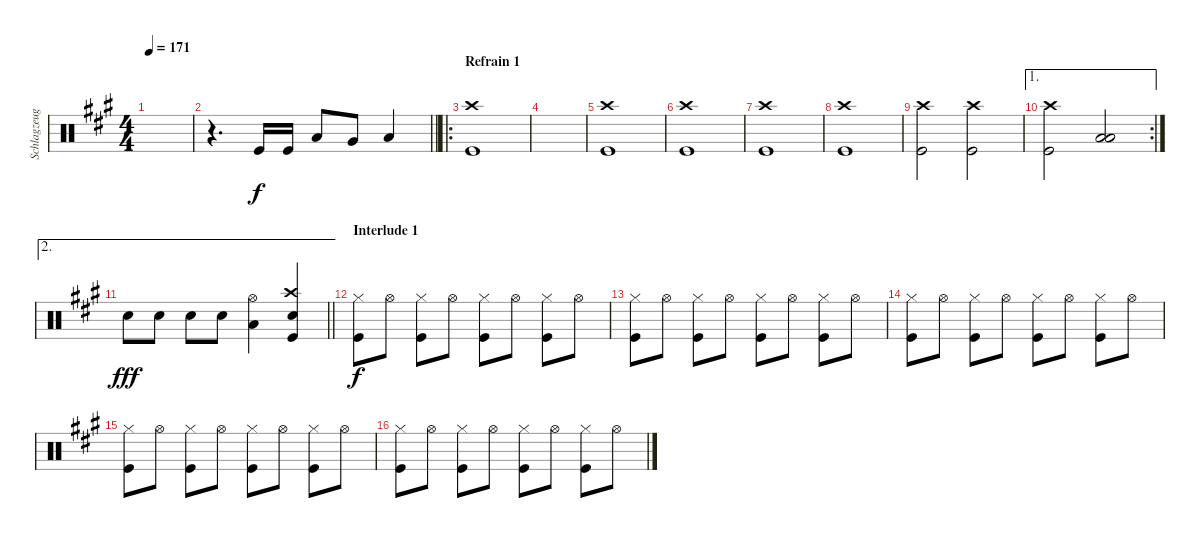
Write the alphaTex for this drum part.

\track ("Schlagzeug" "Schlagzeug") {instrument percussion}
\staff {score}
\articulation defaults
\ts (4 4)
\tempo 171
\clef neutral
\ks f#minor
|
\barLineRight lightlight
r.4{d} "Kick (hit)".16 "Kick (hit)".16 "Low Tom (hit)".8 "Very Low Tom (hit)".8 "Low Floor Tom (hit)".4 |
\ro
\section ("" "Refrain 1")
("Crash high (hit)" "Kick (hit)").1 |
|
("Crash high (hit)" "Kick (hit)").1 |
("Crash high (hit)" "Kick (hit)").1 |
("Crash high (hit)" "Kick (hit)").1 |
("Crash high (hit)" "Kick (hit)").1 |
("Crash high (hit)" "Kick (hit)").2 ("Crash high (hit)" "Kick (hit)").2 |
\ae 1
\rc 2
("Crash high (hit)" "Kick (hit)").2 ("Low Tom (hit)" "Low Floor Tom (hit)").2 |
\ae 2
\barLineRight lightlight "Electric Snare (hit)".8{dy fff} "Electric Snare (hit)".8 "Electric Snare (hit)".8 "Electric Snare (hit)".8
("Low Tom (hit)" "Hi-Hat (open)").4 ("Crash high (hit)" "Electric Snare (hit)" "Kick (hit)").4 |
\section ("" "Interlude 1")
("Hi-Hat (closed)" "Kick (hit)").8{dy f} "Hi-Hat (open)".8 ("Hi-Hat (closed)" "Kick (hit)").8 "Hi-Hat (open)".8 ("Hi-Hat (closed)" "Kick (hit)").8 "Hi-Hat (open)".8 ("Hi-Hat (closed)" "Kick (hit)").8 "Hi-Hat (open)".8 |
("Hi-Hat (closed)" "Kick (hit)").8 "Hi-Hat (open)".8 ("Hi-Hat (closed)" "Kick (hit)").8 "Hi-Hat (open)".8 ("Hi-Hat (closed)" "Kick (hit)").8 "Hi-Hat (open)".8 ("Hi-Hat (closed)" "Kick (hit)").8 "Hi-Hat (open)".8 |
("Hi-Hat (closed)" "Kick (hit)").8 "Hi-Hat (open)".8 ("Hi-Hat (closed)" "Kick (hit)").8 "Hi-Hat (open)".8 ("Hi-Hat (closed)" "Kick (hit)").8 "Hi-Hat (open)".8 ("Hi-Hat (closed)" "Kick (hit)").8 "Hi-Hat (open)".8 |
("Hi-Hat (closed)" "Kick (hit)").8 "Hi-Hat (open)".8 ("Hi-Hat (closed)" "Kick (hit)").8 "Hi-Hat (open)".8 ("Hi-Hat (closed)" "Kick (hit)").8 "Hi-Hat (open)".8 ("Hi-Hat (closed)" "Kick (hit)").8 "Hi-Hat (open)".8 |
("Hi-Hat (closed)" "Kick (hit)").8 "Hi-Hat (open)".8 ("Hi-Hat (closed)" "Kick (hit)").8 "Hi-Hat (open)".8 ("Hi-Hat (closed)" "Kick (hit)").8 "Hi-Hat (open)".8 ("Hi-Hat (closed)" "Kick (hit)").8 "Hi-Hat (open)".8
